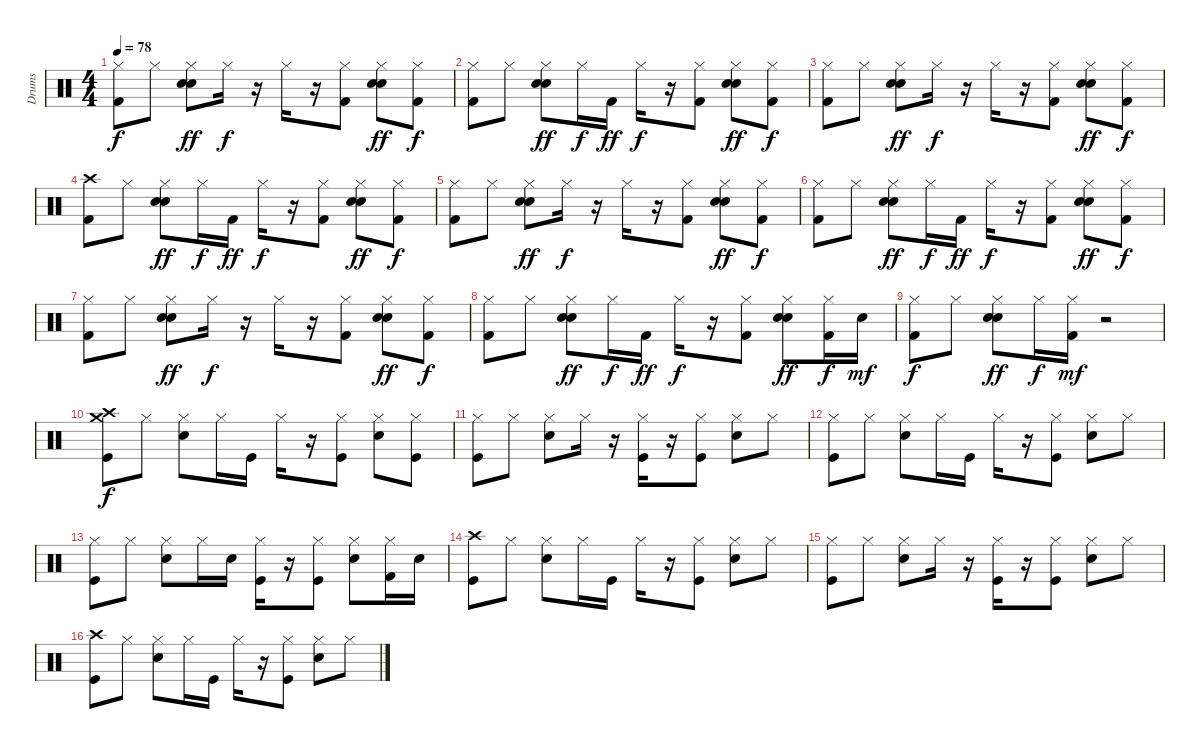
\track ("Drums" "Drums") {instrument percussion}
\staff {score}
\articulation defaults
\ts (4 4)
\tempo 78
\clef neutral
\ks c
("Hi-Hat (closed)" "Kick (hit) 2").8{dy f} "Hi-Hat (closed)".8 ("Electric Snare (hit)" "Hi-Hat (closed)" "Snare (hit) 2").8{dy ff} "Hi-Hat (closed)".16{dy f} r.16 "Hi-Hat (closed)".16 r.16 ("Hi-Hat (closed)" "Kick (hit) 2").8 ("Electric Snare (hit)" "Hi-Hat (closed)" "Snare (hit) 2").8{dy ff} ("Hi-Hat (closed)" "Kick (hit) 2").8{dy f} |
("Hi-Hat (closed)" "Kick (hit) 2").8 "Hi-Hat (closed)".8 ("Electric Snare (hit)" "Hi-Hat (closed)" "Snare (hit) 2").8{dy ff} "Hi-Hat (closed)".16{dy f} "Kick (hit) 2".16{dy ff} "Hi-Hat (closed)".16{dy f} r.16 ("Hi-Hat (closed)" "Kick (hit) 2").8 ("Electric Snare (hit)" "Hi-Hat (closed)" "Snare (hit) 2").8{dy ff} ("Hi-Hat (closed)" "Kick (hit) 2").8{dy f} |
("Hi-Hat (closed)" "Kick (hit) 2").8 "Hi-Hat (closed)".8 ("Electric Snare (hit)" "Hi-Hat (closed)" "Snare (hit) 2").8{dy ff} "Hi-Hat (closed)".16{dy f} r.16 "Hi-Hat (closed)".16 r.16 ("Hi-Hat (closed)" "Kick (hit) 2").8 ("Electric Snare (hit)" "Hi-Hat (closed)" "Snare (hit) 2").8{dy ff} ("Hi-Hat (closed)" "Kick (hit) 2").8{dy f} |
("Crash high (hit)" "Kick (hit) 2").8 "Hi-Hat (closed)".8 ("Electric Snare (hit)" "Hi-Hat (closed)" "Snare (hit) 2").8{dy ff} "Hi-Hat (closed)".16{dy f} "Kick (hit) 2".16{dy ff} "Hi-Hat (closed)".16{dy f} r.16 ("Hi-Hat (closed)" "Kick (hit) 2").8 ("Electric Snare (hit)" "Hi-Hat (closed)" "Snare (hit) 2").8{dy ff} ("Hi-Hat (closed)" "Kick (hit) 2").8{dy f} |
("Hi-Hat (closed)" "Kick (hit) 2").8 "Hi-Hat (closed)".8 ("Electric Snare (hit)" "Hi-Hat (closed)" "Snare (hit) 2").8{dy ff} "Hi-Hat (closed)".16{dy f} r.16 "Hi-Hat (closed)".16 r.16 ("Hi-Hat (closed)" "Kick (hit) 2").8 ("Electric Snare (hit)" "Hi-Hat (closed)" "Snare (hit) 2").8{dy ff} ("Hi-Hat (closed)" "Kick (hit) 2").8{dy f} |
("Hi-Hat (closed)" "Kick (hit) 2").8 "Hi-Hat (closed)".8 ("Electric Snare (hit)" "Hi-Hat (closed)" "Snare (hit) 2").8{dy ff} "Hi-Hat (closed)".16{dy f} "Kick (hit) 2".16{dy ff} "Hi-Hat (closed)".16{dy f} r.16 ("Hi-Hat (closed)" "Kick (hit) 2").8 ("Electric Snare (hit)" "Hi-Hat (closed)" "Snare (hit) 2").8{dy ff} ("Hi-Hat (closed)" "Kick (hit) 2").8{dy f} |
("Hi-Hat (closed)" "Kick (hit) 2").8 "Hi-Hat (closed)".8 ("Electric Snare (hit)" "Hi-Hat (closed)" "Snare (hit) 2").8{dy ff} "Hi-Hat (closed)".16{dy f} r.16 "Hi-Hat (closed)".16 r.16 ("Hi-Hat (closed)" "Kick (hit) 2").8 ("Electric Snare (hit)" "Hi-Hat (closed)" "Snare (hit) 2").8{dy ff} ("Hi-Hat (closed)" "Kick (hit) 2").8{dy f} |
("Hi-Hat (closed)" "Kick (hit) 2").8 "Hi-Hat (closed)".8 ("Electric Snare (hit)" "Hi-Hat (closed)" "Snare (hit) 2").8{dy ff} "Hi-Hat (closed)".16{dy f} "Kick (hit) 2".16{dy ff} "Hi-Hat (closed)".16{dy f} r.16 ("Hi-Hat (closed)" "Kick (hit) 2").8 ("Electric Snare (hit)" "Hi-Hat (closed)" "Snare (hit) 2").8{dy ff} ("Hi-Hat (closed)" "Kick (hit) 2").16{dy f} "Snare (hit) 2".16{dy mf} |
("Hi-Hat (closed)" "Kick (hit) 2").8{dy f} "Hi-Hat (closed)".8 ("Electric Snare (hit)" "Hi-Hat (closed)" "Snare (hit) 2").8{dy ff} "Hi-Hat (closed)".16{dy f} ("Hi-Hat (closed)" "Kick (hit) 2").16{dy mf} r.2 |
("Crash high (hit)" "Crash medium (hit)" "Kick (hit)").8{dy f} "Hi-Hat (closed)".8 ("Hi-Hat (closed)" "Electric Snare (hit)").8 "Hi-Hat (closed)".16 "Kick (hit)".16 "Hi-Hat (closed)".16 r.16 ("Hi-Hat (closed)" "Kick (hit)").8 ("Hi-Hat (closed)" "Electric Snare (hit)").8 ("Hi-Hat (closed)" "Kick (hit)").8 |
("Hi-Hat (closed)" "Kick (hit)").8 "Hi-Hat (closed)".8 ("Hi-Hat (closed)" "Electric Snare (hit)").8 "Hi-Hat (closed)".16 r.16 ("Hi-Hat (closed)" "Kick (hit)").16 r.16 ("Hi-Hat (closed)" "Kick (hit)").8 ("Hi-Hat (closed)" "Electric Snare (hit)").8 "Hi-Hat (closed)".8 |
("Hi-Hat (closed)" "Kick (hit)").8 "Hi-Hat (closed)".8 ("Hi-Hat (closed)" "Electric Snare (hit)").8 "Hi-Hat (closed)".16 "Kick (hit)".16 "Hi-Hat (closed)".16 r.16 ("Hi-Hat (closed)" "Kick (hit)").8 ("Hi-Hat (closed)" "Electric Snare (hit)").8 "Hi-Hat (closed)".8 |
("Hi-Hat (closed)" "Kick (hit)").8 "Hi-Hat (closed)".8 ("Hi-Hat (closed)" "Electric Snare (hit)").8 "Hi-Hat (closed)".16 "Electric Snare (hit)".16 ("Hi-Hat (closed)" "Kick (hit)").16 r.16 ("Hi-Hat (closed)" "Kick (hit)").8 ("Hi-Hat (closed)" "Electric Snare (hit)").8 ("Hi-Hat (closed)" "Kick (hit) 2").16 "Electric Snare (hit)".16 |
("Crash high (hit)" "Kick (hit)").8 "Hi-Hat (closed)".8 ("Hi-Hat (closed)" "Electric Snare (hit)").8 "Hi-Hat (closed)".16 "Kick (hit)".16 "Hi-Hat (closed)".16 r.16 ("Hi-Hat (closed)" "Kick (hit)").8 ("Hi-Hat (closed)" "Electric Snare (hit)").8 "Hi-Hat (closed)".8 |
("Hi-Hat (closed)" "Kick (hit)").8 "Hi-Hat (closed)".8 ("Hi-Hat (closed)" "Electric Snare (hit)").8 "Hi-Hat (closed)".16 r.16 ("Hi-Hat (closed)" "Kick (hit)").16 r.16 ("Hi-Hat (closed)" "Kick (hit)").8 ("Hi-Hat (closed)" "Electric Snare (hit)").8 "Hi-Hat (closed)".8 |
("Crash high (hit)" "Kick (hit)").8 "Hi-Hat (closed)".8 ("Hi-Hat (closed)" "Electric Snare (hit)").8 "Hi-Hat (closed)".16 "Kick (hit)".16 "Hi-Hat (closed)".16 r.16 ("Hi-Hat (closed)" "Kick (hit)").8 ("Hi-Hat (closed)" "Electric Snare (hit)").8 "Hi-Hat (closed)".8
